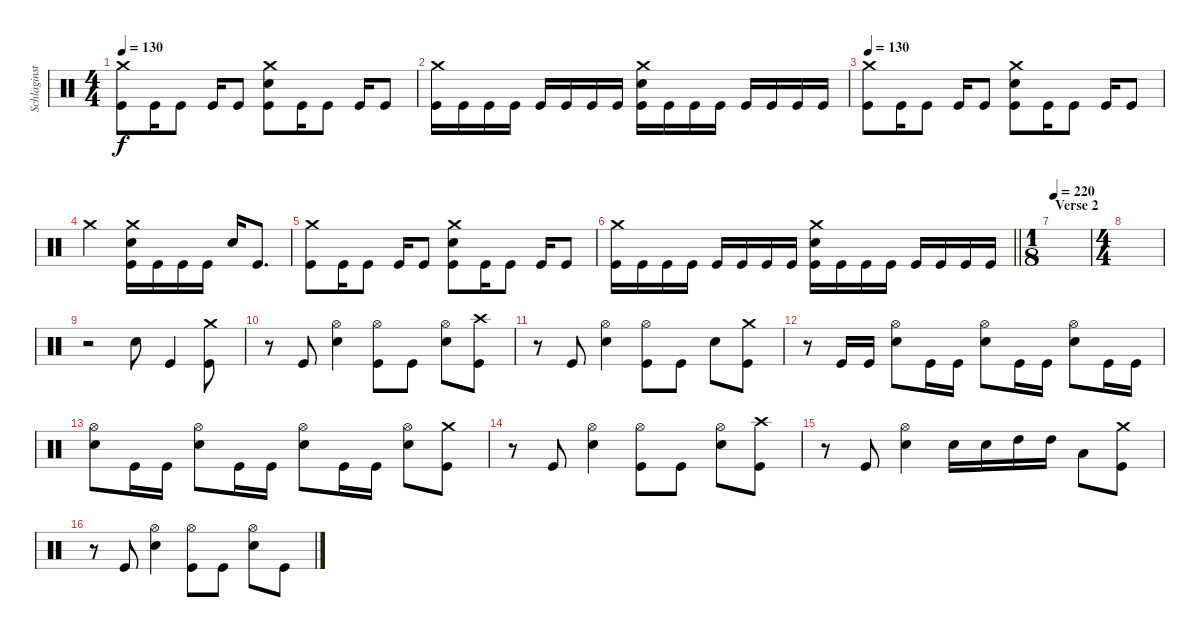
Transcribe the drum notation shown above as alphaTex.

\track ("Schlaginstrumente - Auswahl" "Schlaginst") {instrument percussion}
\staff {score}
\articulation defaults
\ts (4 4)
\tempo 130
\clef neutral
\ks c
("Crash medium (hit)" "Kick (hit)").8{dy f} "Kick (hit)".16 "Kick (hit)".8 "Kick (hit)".16 "Kick (hit)".8 ("Crash medium (hit)" "Electric Snare (hit)" "Kick (hit)").8 "Kick (hit)".16 "Kick (hit)".8 "Kick (hit)".16 "Kick (hit)".8 |
("Crash medium (hit)" "Kick (hit)").16 "Kick (hit)".16 "Kick (hit)".16 "Kick (hit)".16 "Kick (hit)".16 "Kick (hit)".16 "Kick (hit)".16 "Kick (hit)".16 ("Crash medium (hit)" "Electric Snare (hit)" "Kick (hit)").16 "Kick (hit)".16 "Kick (hit)".16 "Kick (hit)".16 "Kick (hit)".16 "Kick (hit)".16 "Kick (hit)".16 "Kick (hit)".16 |
\tempo 130
("Crash medium (hit)" "Kick (hit)").8 "Kick (hit)".16 "Kick (hit)".8 "Kick (hit)".16 "Kick (hit)".8 ("Crash medium (hit)" "Electric Snare (hit)" "Kick (hit)").8 "Kick (hit)".16 "Kick (hit)".8 "Kick (hit)".16 "Kick (hit)".8 |
"Crash medium (hit)".2 ("Crash medium (hit)" "Electric Snare (hit)" "Kick (hit)").16 "Kick (hit)".16 "Kick (hit)".16 "Kick (hit)".16 "Electric Snare (hit)".16 "Kick (hit)".8{d} |
("Crash medium (hit)" "Kick (hit)").8 "Kick (hit)".16 "Kick (hit)".8 "Kick (hit)".16 "Kick (hit)".8 ("Crash medium (hit)" "Electric Snare (hit)" "Kick (hit)").8 "Kick (hit)".16 "Kick (hit)".8 "Kick (hit)".16 "Kick (hit)".8 |
\barLineRight lightlight
("Crash medium (hit)" "Kick (hit)").16 "Kick (hit)".16 "Kick (hit)".16 "Kick (hit)".16 "Kick (hit)".16 "Kick (hit)".16 "Kick (hit)".16 "Kick (hit)".16 ("Crash medium (hit)" "Electric Snare (hit)" "Kick (hit)").16 "Kick (hit)".16 "Kick (hit)".16 "Kick (hit)".16 "Kick (hit)".16 "Kick (hit)".16 "Kick (hit)".16 "Kick (hit)".16 |
\ts (1 8)
\section ("" "Verse 2")
\tempo 220
|
\ts (4 4)
|
r.2 "Electric Snare (hit)".8 "Kick (hit)".4 ("Crash medium (hit)" "Kick (hit)").8 |
r.8 "Kick (hit)".8 ("Hi-Hat (open)" "Electric Snare (hit)").4 ("Hi-Hat (open)" "Kick (hit)").8 "Kick (hit)".8 ("Hi-Hat (open)" "Electric Snare (hit)").8 ("Crash high (hit)" "Kick (hit)").8 |
r.8 "Kick (hit)".8 ("Hi-Hat (open)" "Electric Snare (hit)").4 ("Hi-Hat (open)" "Kick (hit)").8 "Kick (hit)".8 "Electric Snare (hit)".8 ("Crash medium (hit)" "Kick (hit)").8 |
r.8 "Kick (hit)".16 "Kick (hit)".16 ("Hi-Hat (open)" "Electric Snare (hit)").8 "Kick (hit)".16 "Kick (hit)".16 ("Hi-Hat (open)" "Electric Snare (hit)").8 "Kick (hit)".16 "Kick (hit)".16 ("Hi-Hat (open)" "Electric Snare (hit)").8 "Kick (hit)".16 "Kick (hit)".16 |
("Hi-Hat (open)" "Electric Snare (hit)").8 "Kick (hit)".16 "Kick (hit)".16 ("Hi-Hat (open)" "Electric Snare (hit)").8 "Kick (hit)".16 "Kick (hit)".16 ("Hi-Hat (open)" "Electric Snare (hit)").8 "Kick (hit)".16 "Kick (hit)".16 ("Hi-Hat (open)" "Electric Snare (hit)").8 ("Crash medium (hit)" "Kick (hit)").8 |
r.8 "Kick (hit)".8 ("Hi-Hat (open)" "Electric Snare (hit)").4 ("Hi-Hat (open)" "Kick (hit)").8 "Kick (hit)".8 ("Hi-Hat (open)" "Electric Snare (hit)").8 ("Crash high (hit)" "Kick (hit)").8 |
r.8 "Kick (hit)".8 ("Hi-Hat (open)" "Electric Snare (hit)").4 "Electric Snare (hit)".16 "Electric Snare (hit)".16 "High Tom (hit)".16 "High Tom (hit)".16 "Low Tom (hit)".8 ("Crash medium (hit)" "Kick (hit)").8 |
r.8 "Kick (hit)".8 ("Hi-Hat (open)" "Electric Snare (hit)").4 ("Hi-Hat (open)" "Kick (hit)").8 "Kick (hit)".8 ("Hi-Hat (open)" "Electric Snare (hit)").8 "Kick (hit)".8
